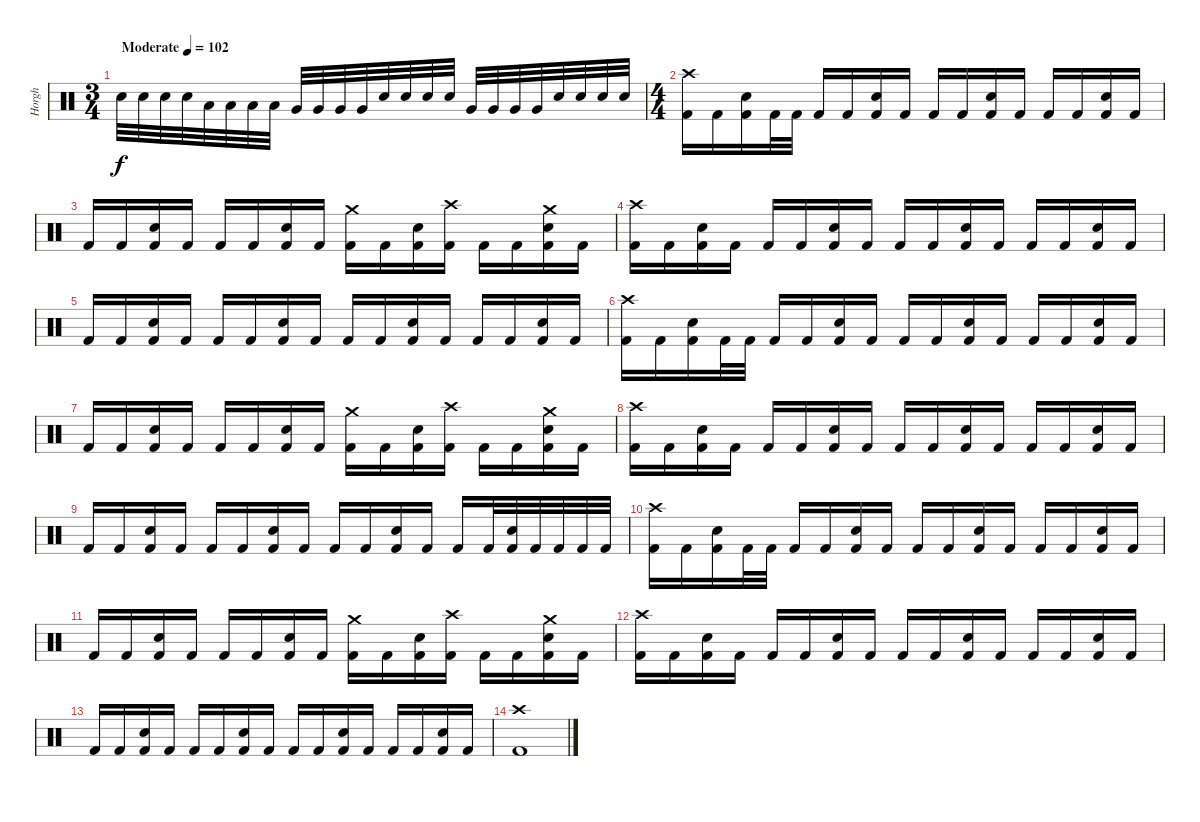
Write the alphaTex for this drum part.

\track ("Horgh" "Horgh") {instrument percussion}
\staff {score}
\articulation defaults
\ts (3 4)
\tempo (102 "Moderate")
\clef neutral
\ks c "Electric Snare (hit)".32{dy f} "Electric Snare (hit)".32 "Electric Snare (hit)".32 "Electric Snare (hit)".32 "Low Tom (hit)".32 "Low Tom (hit)".32 "Low Tom (hit)".32 "Low Tom (hit)".32 "Very Low Tom (hit)".32 "Very Low Tom (hit)".32 "Very Low Tom (hit)".32 "Very Low Tom (hit)".32 "Electric Snare (hit)".32 "Electric Snare (hit)".32 "Electric Snare (hit)".32 "Electric Snare (hit)".32 "Very Low Tom (hit)".32 "Very Low Tom (hit)".32 "Very Low Tom (hit)".32 "Very Low Tom (hit)".32 "Electric Snare (hit)".32 "Electric Snare (hit)".32 "Electric Snare (hit)".32 "Electric Snare (hit)".32
|
\ts (4 4)
("Crash high (hit)" "Kick (hit) 2").16 "Kick (hit) 2".16 ("Electric Snare (hit)" "Kick (hit) 2").16 "Kick (hit) 2".32 "Kick (hit) 2".32 "Kick (hit) 2".16 "Kick (hit) 2".16 ("Electric Snare (hit)" "Kick (hit) 2").16 "Kick (hit) 2".16 "Kick (hit) 2".16 "Kick (hit) 2".16 ("Electric Snare (hit)" "Kick (hit) 2").16 "Kick (hit) 2".16 "Kick (hit) 2".16 "Kick (hit) 2".16 ("Electric Snare (hit)" "Kick (hit) 2").16 "Kick (hit) 2".16 |
"Kick (hit) 2".16 "Kick (hit) 2".16 ("Electric Snare (hit)" "Kick (hit) 2").16 "Kick (hit) 2".16 "Kick (hit) 2".16 "Kick (hit) 2".16 ("Electric Snare (hit)" "Kick (hit) 2").16 "Kick (hit) 2".16 ("Crash medium (hit)" "Kick (hit) 2").16 "Kick (hit) 2".16 ("Electric Snare (hit)" "Kick (hit) 2").16 ("Crash high (hit)" "Kick (hit) 2").16 "Kick (hit) 2".16 "Kick (hit) 2".16 ("Crash medium (hit)" "Electric Snare (hit)" "Kick (hit) 2").16 "Kick (hit) 2".16 |
("Crash high (hit)" "Kick (hit) 2").16 "Kick (hit) 2".16 ("Electric Snare (hit)" "Kick (hit) 2").16 "Kick (hit) 2".16 "Kick (hit) 2".16 "Kick (hit) 2".16 ("Electric Snare (hit)" "Kick (hit) 2").16 "Kick (hit) 2".16 "Kick (hit) 2".16 "Kick (hit) 2".16 ("Electric Snare (hit)" "Kick (hit) 2").16 "Kick (hit) 2".16 "Kick (hit) 2".16 "Kick (hit) 2".16 ("Electric Snare (hit)" "Kick (hit) 2").16 "Kick (hit) 2".16 |
"Kick (hit) 2".16 "Kick (hit) 2".16 ("Electric Snare (hit)" "Kick (hit) 2").16 "Kick (hit) 2".16 "Kick (hit) 2".16 "Kick (hit) 2".16 ("Electric Snare (hit)" "Kick (hit) 2").16 "Kick (hit) 2".16 "Kick (hit) 2".16 "Kick (hit) 2".16 ("Electric Snare (hit)" "Kick (hit) 2").16 "Kick (hit) 2".16 "Kick (hit) 2".16 "Kick (hit) 2".16 ("Electric Snare (hit)" "Kick (hit) 2").16 "Kick (hit) 2".16 |
("Crash high (hit)" "Kick (hit) 2").16 "Kick (hit) 2".16 ("Electric Snare (hit)" "Kick (hit) 2").16 "Kick (hit) 2".32 "Kick (hit) 2".32 "Kick (hit) 2".16 "Kick (hit) 2".16 ("Electric Snare (hit)" "Kick (hit) 2").16 "Kick (hit) 2".16 "Kick (hit) 2".16 "Kick (hit) 2".16 ("Electric Snare (hit)" "Kick (hit) 2").16 "Kick (hit) 2".16 "Kick (hit) 2".16 "Kick (hit) 2".16 ("Electric Snare (hit)" "Kick (hit) 2").16 "Kick (hit) 2".16 |
"Kick (hit) 2".16 "Kick (hit) 2".16 ("Electric Snare (hit)" "Kick (hit) 2").16 "Kick (hit) 2".16 "Kick (hit) 2".16 "Kick (hit) 2".16 ("Electric Snare (hit)" "Kick (hit) 2").16 "Kick (hit) 2".16 ("Crash medium (hit)" "Kick (hit) 2").16 "Kick (hit) 2".16 ("Electric Snare (hit)" "Kick (hit) 2").16 ("Crash high (hit)" "Kick (hit) 2").16 "Kick (hit) 2".16 "Kick (hit) 2".16 ("Crash medium (hit)" "Electric Snare (hit)" "Kick (hit) 2").16 "Kick (hit) 2".16 |
("Crash high (hit)" "Kick (hit) 2").16 "Kick (hit) 2".16 ("Electric Snare (hit)" "Kick (hit) 2").16 "Kick (hit) 2".16 "Kick (hit) 2".16 "Kick (hit) 2".16 ("Electric Snare (hit)" "Kick (hit) 2").16 "Kick (hit) 2".16 "Kick (hit) 2".16 "Kick (hit) 2".16 ("Electric Snare (hit)" "Kick (hit) 2").16 "Kick (hit) 2".16 "Kick (hit) 2".16 "Kick (hit) 2".16 ("Electric Snare (hit)" "Kick (hit) 2").16 "Kick (hit) 2".16 |
"Kick (hit) 2".16 "Kick (hit) 2".16 ("Electric Snare (hit)" "Kick (hit) 2").16 "Kick (hit) 2".16 "Kick (hit) 2".16 "Kick (hit) 2".16 ("Electric Snare (hit)" "Kick (hit) 2").16 "Kick (hit) 2".16 "Kick (hit) 2".16 "Kick (hit) 2".16 ("Electric Snare (hit)" "Kick (hit) 2").16 "Kick (hit) 2".16 "Kick (hit) 2".16 "Kick (hit) 2".32 ("Electric Snare (hit)" "Kick (hit) 2").32 "Kick (hit) 2".32 "Kick (hit) 2".32 "Kick (hit) 2".32 "Kick (hit) 2".32 |
("Crash high (hit)" "Kick (hit) 2").16 "Kick (hit) 2".16 ("Electric Snare (hit)" "Kick (hit) 2").16 "Kick (hit) 2".32 "Kick (hit) 2".32 "Kick (hit) 2".16 "Kick (hit) 2".16 ("Electric Snare (hit)" "Kick (hit) 2").16 "Kick (hit) 2".16 "Kick (hit) 2".16 "Kick (hit) 2".16 ("Electric Snare (hit)" "Kick (hit) 2").16 "Kick (hit) 2".16 "Kick (hit) 2".16 "Kick (hit) 2".16 ("Electric Snare (hit)" "Kick (hit) 2").16 "Kick (hit) 2".16 |
"Kick (hit) 2".16 "Kick (hit) 2".16 ("Electric Snare (hit)" "Kick (hit) 2").16 "Kick (hit) 2".16 "Kick (hit) 2".16 "Kick (hit) 2".16 ("Electric Snare (hit)" "Kick (hit) 2").16 "Kick (hit) 2".16 ("Crash medium (hit)" "Kick (hit) 2").16 "Kick (hit) 2".16 ("Electric Snare (hit)" "Kick (hit) 2").16 ("Crash high (hit)" "Kick (hit) 2").16 "Kick (hit) 2".16 "Kick (hit) 2".16 ("Crash medium (hit)" "Electric Snare (hit)" "Kick (hit) 2").16 "Kick (hit) 2".16 |
("Crash high (hit)" "Kick (hit) 2").16 "Kick (hit) 2".16 ("Electric Snare (hit)" "Kick (hit) 2").16 "Kick (hit) 2".16 "Kick (hit) 2".16 "Kick (hit) 2".16 ("Electric Snare (hit)" "Kick (hit) 2").16 "Kick (hit) 2".16 "Kick (hit) 2".16 "Kick (hit) 2".16 ("Electric Snare (hit)" "Kick (hit) 2").16 "Kick (hit) 2".16 "Kick (hit) 2".16 "Kick (hit) 2".16 ("Electric Snare (hit)" "Kick (hit) 2").16 "Kick (hit) 2".16 |
"Kick (hit) 2".16 "Kick (hit) 2".16 ("Electric Snare (hit)" "Kick (hit) 2").16 "Kick (hit) 2".16 "Kick (hit) 2".16 "Kick (hit) 2".16 ("Electric Snare (hit)" "Kick (hit) 2").16 "Kick (hit) 2".16 "Kick (hit) 2".16 "Kick (hit) 2".16 ("Electric Snare (hit)" "Kick (hit) 2").16 "Kick (hit) 2".16 "Kick (hit) 2".16 "Kick (hit) 2".16 ("Electric Snare (hit)" "Kick (hit) 2").16 "Kick (hit) 2".16 |
("Crash high (hit)" "Kick (hit) 2").1
